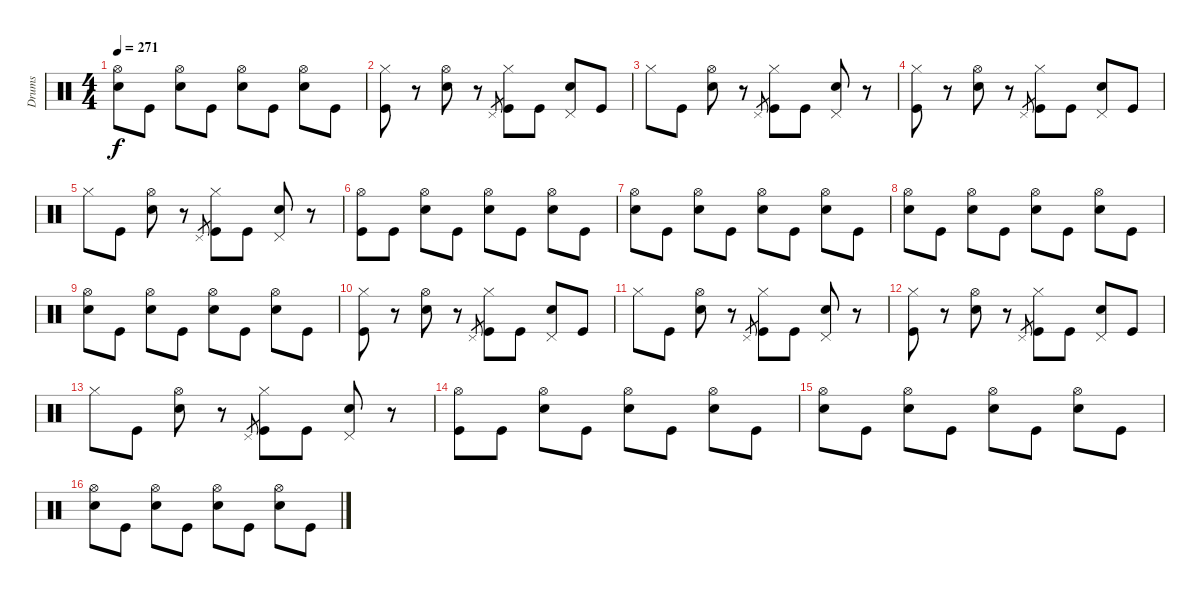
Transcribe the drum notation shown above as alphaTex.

\track ("Drums" "Drums") {instrument percussion}
\staff {score}
\articulation defaults
\ts (4 4)
\tempo 271
\clef neutral
\ks c
("Hi-Hat (open)" "Electric Snare (hit)").8{dy f} "Kick (hit)".8 ("Hi-Hat (open)" "Electric Snare (hit)").8 "Kick (hit)".8 ("Hi-Hat (open)" "Electric Snare (hit)").8 "Kick (hit)".8 ("Hi-Hat (open)" "Electric Snare (hit)").8 "Kick (hit)".8 |
("Hi-Hat (closed)" "Kick (hit)").8 r.8 ("Hi-Hat (open)" "Electric Snare (hit)").8 r.8 "Pedal Hi-Hat (hit)".8{gr} ("Hi-Hat (closed)" "Kick (hit)").8 "Kick (hit)".8 ("Pedal Hi-Hat (hit)" "Electric Snare (hit)").8 "Kick (hit)".8 |
"Hi-Hat (closed)".8 "Kick (hit)".8 ("Hi-Hat (open)" "Electric Snare (hit)").8 r.8 "Pedal Hi-Hat (hit)".8{gr} ("Hi-Hat (closed)" "Kick (hit)").8 "Kick (hit)".8 ("Pedal Hi-Hat (hit)" "Electric Snare (hit)").8 r.8 |
("Hi-Hat (closed)" "Kick (hit)").8 r.8 ("Hi-Hat (open)" "Electric Snare (hit)").8 r.8 "Pedal Hi-Hat (hit)".8{gr} ("Hi-Hat (closed)" "Kick (hit)").8 "Kick (hit)".8 ("Pedal Hi-Hat (hit)" "Electric Snare (hit)").8 "Kick (hit)".8 |
"Hi-Hat (closed)".8 "Kick (hit)".8 ("Hi-Hat (open)" "Electric Snare (hit)").8 r.8 "Pedal Hi-Hat (hit)".8{gr} ("Hi-Hat (closed)" "Kick (hit)").8 "Kick (hit)".8 ("Pedal Hi-Hat (hit)" "Electric Snare (hit)").8 r.8 |
("Hi-Hat (open)" "Kick (hit)").8 "Kick (hit)".8 ("Hi-Hat (open)" "Electric Snare (hit)").8 "Kick (hit)".8 ("Hi-Hat (open)" "Electric Snare (hit)").8 "Kick (hit)".8 ("Hi-Hat (open)" "Electric Snare (hit)").8 "Kick (hit)".8 |
("Hi-Hat (open)" "Electric Snare (hit)").8 "Kick (hit)".8 ("Hi-Hat (open)" "Electric Snare (hit)").8 "Kick (hit)".8 ("Hi-Hat (open)" "Electric Snare (hit)").8 "Kick (hit)".8 ("Hi-Hat (open)" "Electric Snare (hit)").8 "Kick (hit)".8 |
("Hi-Hat (open)" "Electric Snare (hit)").8 "Kick (hit)".8 ("Hi-Hat (open)" "Electric Snare (hit)").8 "Kick (hit)".8 ("Hi-Hat (open)" "Electric Snare (hit)").8 "Kick (hit)".8 ("Hi-Hat (open)" "Electric Snare (hit)").8 "Kick (hit)".8 |
("Hi-Hat (open)" "Electric Snare (hit)").8 "Kick (hit)".8 ("Hi-Hat (open)" "Electric Snare (hit)").8 "Kick (hit)".8 ("Hi-Hat (open)" "Electric Snare (hit)").8 "Kick (hit)".8 ("Hi-Hat (open)" "Electric Snare (hit)").8 "Kick (hit)".8 |
("Hi-Hat (closed)" "Kick (hit)").8 r.8 ("Hi-Hat (open)" "Electric Snare (hit)").8 r.8 "Pedal Hi-Hat (hit)".8{gr} ("Hi-Hat (closed)" "Kick (hit)").8 "Kick (hit)".8 ("Pedal Hi-Hat (hit)" "Electric Snare (hit)").8 "Kick (hit)".8 |
"Hi-Hat (closed)".8 "Kick (hit)".8 ("Hi-Hat (open)" "Electric Snare (hit)").8 r.8 "Pedal Hi-Hat (hit)".8{gr} ("Hi-Hat (closed)" "Kick (hit)").8 "Kick (hit)".8 ("Pedal Hi-Hat (hit)" "Electric Snare (hit)").8 r.8 |
("Hi-Hat (closed)" "Kick (hit)").8 r.8 ("Hi-Hat (open)" "Electric Snare (hit)").8 r.8 "Pedal Hi-Hat (hit)".8{gr} ("Hi-Hat (closed)" "Kick (hit)").8 "Kick (hit)".8 ("Pedal Hi-Hat (hit)" "Electric Snare (hit)").8 "Kick (hit)".8 |
"Hi-Hat (closed)".8 "Kick (hit)".8 ("Hi-Hat (open)" "Electric Snare (hit)").8 r.8 "Pedal Hi-Hat (hit)".8{gr} ("Hi-Hat (closed)" "Kick (hit)").8 "Kick (hit)".8 ("Pedal Hi-Hat (hit)" "Electric Snare (hit)").8 r.8 |
("Hi-Hat (open)" "Kick (hit)").8 "Kick (hit)".8 ("Hi-Hat (open)" "Electric Snare (hit)").8 "Kick (hit)".8 ("Hi-Hat (open)" "Electric Snare (hit)").8 "Kick (hit)".8 ("Hi-Hat (open)" "Electric Snare (hit)").8 "Kick (hit)".8 |
("Hi-Hat (open)" "Electric Snare (hit)").8 "Kick (hit)".8 ("Hi-Hat (open)" "Electric Snare (hit)").8 "Kick (hit)".8 ("Hi-Hat (open)" "Electric Snare (hit)").8 "Kick (hit)".8 ("Hi-Hat (open)" "Electric Snare (hit)").8 "Kick (hit)".8 |
("Hi-Hat (open)" "Electric Snare (hit)").8 "Kick (hit)".8 ("Hi-Hat (open)" "Electric Snare (hit)").8 "Kick (hit)".8 ("Hi-Hat (open)" "Electric Snare (hit)").8 "Kick (hit)".8 ("Hi-Hat (open)" "Electric Snare (hit)").8 "Kick (hit)".8
